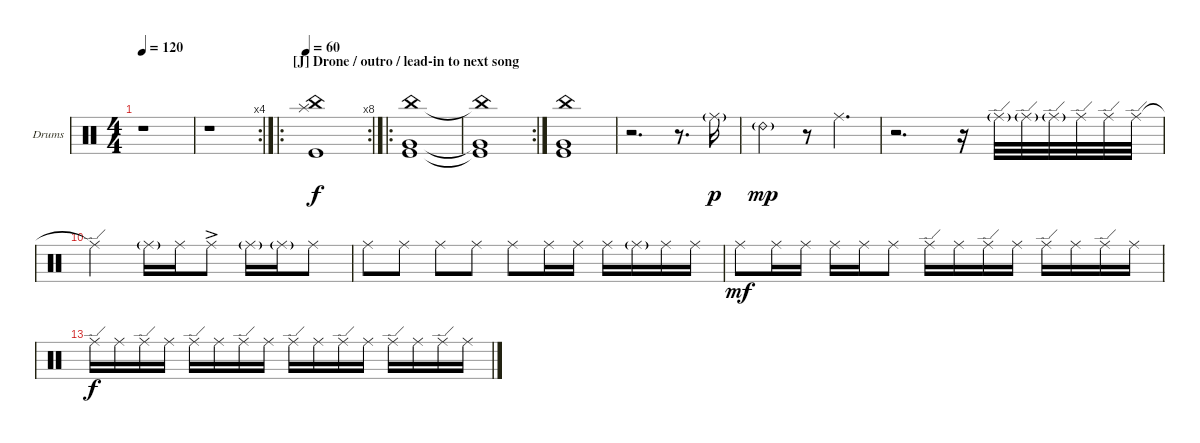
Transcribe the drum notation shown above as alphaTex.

\bracketExtendMode groupsimilarinstruments
\firstSystemTrackNameOrientation horizontal
\otherSystemsTrackNameOrientation horizontal
\defaultBarNumberDisplay FirstOfSystem
\track ("Drumkit" "Drums") {instrument percussion}
\staff {score}
\articulation defaults
\ts (4 4)
\tempo 120
\clef neutral
\ks c
r.1{dy f} |
\rc 4
r.1 |
\ro
\rc 8
\section ("J" "Drone / outro / lead-in to next song")
\tempo 60
("Kick (hit)" "Splash (hit)" "China (hit)").1 |
\ro
("Kick (hit)" "China (hit)" "Very Low Tom (hit)").1 |
\rc 2
("Kick (hit)"{t} "China (hit)"{t} "Very Low Tom (hit)"{t}).1 |
("Kick (hit)" "China (hit)" "Very Low Tom (hit)").1 |
r.2{d} r.8{d} "Ride (middle)"{g}.16{dy p} |
"Ride (bell) 2"{g}.2{dy mp} r.8 "Ride (middle)".4{d} |
r.2{d} r.16 "Ride (edge)"{g}.32 "Ride (edge)"{g}.32 "Ride (edge)"{g}.32 "Ride (edge)".32 "Ride (edge)".32 "Ride (edge)".32 |
"Ride (edge)"{t}.2 "Ride (middle)"{g}.16 "Ride (middle)".16 "Ride (middle)"{ac}.8 "Ride (middle)"{g}.16 "Ride (middle)"{g}.16 "Ride (middle)".8 |
"Ride (middle)".8 "Ride (middle)".8 "Ride (middle)".8 "Ride (middle)".8 "Ride (middle)".8 "Ride (middle)".16 "Ride (middle)".16 "Ride (middle)".16 "Ride (middle)"{g}.16 "Ride (middle)".16 "Ride (middle)".16 |
"Ride (middle)".8{dy mf} "Ride (middle)".16 "Ride (middle)".16 "Ride (middle)".16 "Ride (middle)".16 "Ride (middle)".8 "Ride (edge)".16 "Ride (middle)".16 "Ride (edge)".16 "Ride (middle)".16 "Ride (edge)".16 "Ride (middle)".16 "Ride (edge)".16 "Ride (middle)".16 |
"Ride (edge)".16{dy f} "Ride (middle)".16 "Ride (edge)".16 "Ride (middle)".16 "Ride (edge)".16 "Ride (middle)".16 "Ride (edge)".16 "Ride (middle)".16 "Ride (edge)".16 "Ride (middle)".16 "Ride (edge)".16 "Ride (middle)".16 "Ride (edge)".16 "Ride (middle)".16 "Ride (edge)".16 "Ride (middle)".16
